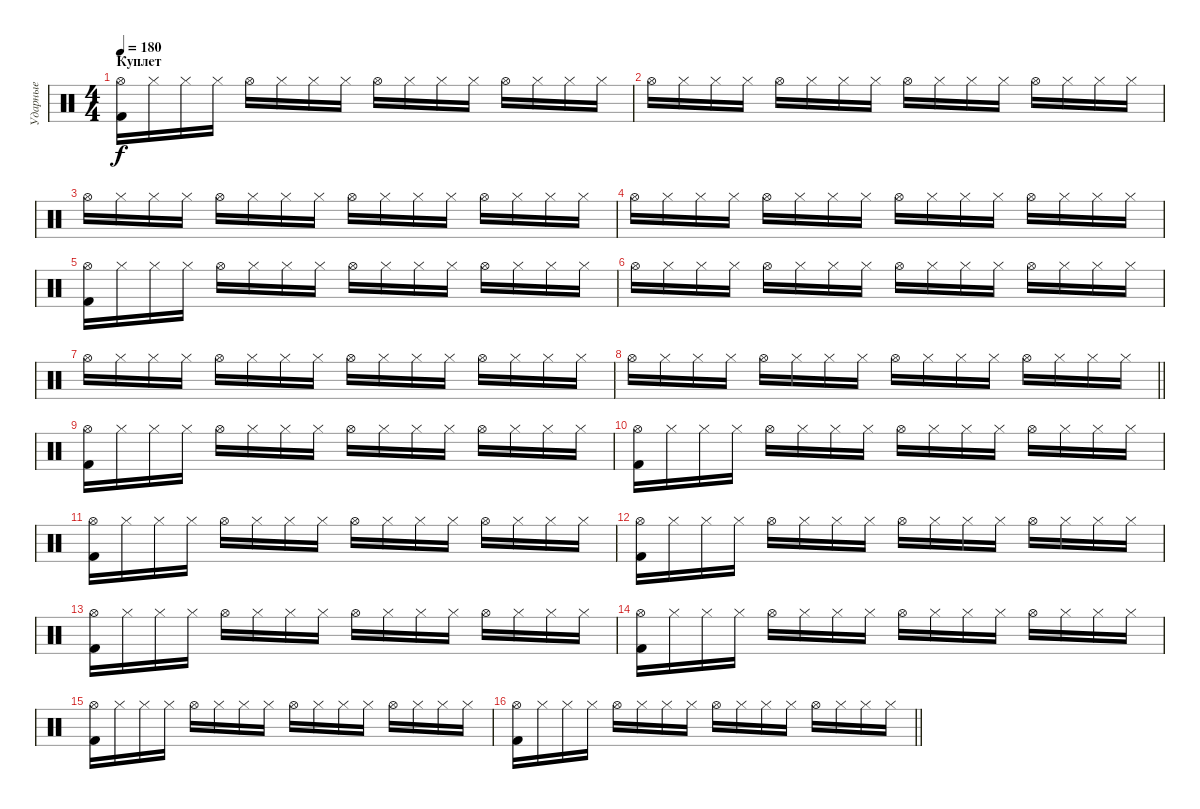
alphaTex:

\track ("Ударные" "Ударные") {instrument percussion}
\staff {score}
\articulation defaults
\ts (4 4)
\section ("" "Куплет")
\tempo 180
\clef neutral
\ks c
("Hi-Hat (open)" "Kick (hit) 2").16{dy f} "Hi-Hat (closed)".16 "Hi-Hat (closed)".16 "Hi-Hat (closed)".16 "Hi-Hat (open)".16 "Hi-Hat (closed)".16 "Hi-Hat (closed)".16 "Hi-Hat (closed)".16 "Hi-Hat (open)".16 "Hi-Hat (closed)".16 "Hi-Hat (closed)".16 "Hi-Hat (closed)".16 "Hi-Hat (open)".16 "Hi-Hat (closed)".16 "Hi-Hat (closed)".16 "Hi-Hat (closed)".16 |
"Hi-Hat (open)".16 "Hi-Hat (closed)".16 "Hi-Hat (closed)".16 "Hi-Hat (closed)".16 "Hi-Hat (open)".16 "Hi-Hat (closed)".16 "Hi-Hat (closed)".16 "Hi-Hat (closed)".16 "Hi-Hat (open)".16 "Hi-Hat (closed)".16 "Hi-Hat (closed)".16 "Hi-Hat (closed)".16 "Hi-Hat (open)".16 "Hi-Hat (closed)".16 "Hi-Hat (closed)".16 "Hi-Hat (closed)".16 |
"Hi-Hat (open)".16 "Hi-Hat (closed)".16 "Hi-Hat (closed)".16 "Hi-Hat (closed)".16 "Hi-Hat (open)".16 "Hi-Hat (closed)".16 "Hi-Hat (closed)".16 "Hi-Hat (closed)".16 "Hi-Hat (open)".16 "Hi-Hat (closed)".16 "Hi-Hat (closed)".16 "Hi-Hat (closed)".16 "Hi-Hat (open)".16 "Hi-Hat (closed)".16 "Hi-Hat (closed)".16 "Hi-Hat (closed)".16 |
"Hi-Hat (open)".16 "Hi-Hat (closed)".16 "Hi-Hat (closed)".16 "Hi-Hat (closed)".16 "Hi-Hat (open)".16 "Hi-Hat (closed)".16 "Hi-Hat (closed)".16 "Hi-Hat (closed)".16 "Hi-Hat (open)".16 "Hi-Hat (closed)".16 "Hi-Hat (closed)".16 "Hi-Hat (closed)".16 "Hi-Hat (open)".16 "Hi-Hat (closed)".16 "Hi-Hat (closed)".16 "Hi-Hat (closed)".16 |
("Hi-Hat (open)" "Kick (hit) 2").16 "Hi-Hat (closed)".16 "Hi-Hat (closed)".16 "Hi-Hat (closed)".16 "Hi-Hat (open)".16 "Hi-Hat (closed)".16 "Hi-Hat (closed)".16 "Hi-Hat (closed)".16 "Hi-Hat (open)".16 "Hi-Hat (closed)".16 "Hi-Hat (closed)".16 "Hi-Hat (closed)".16 "Hi-Hat (open)".16 "Hi-Hat (closed)".16 "Hi-Hat (closed)".16 "Hi-Hat (closed)".16 |
"Hi-Hat (open)".16 "Hi-Hat (closed)".16 "Hi-Hat (closed)".16 "Hi-Hat (closed)".16 "Hi-Hat (open)".16 "Hi-Hat (closed)".16 "Hi-Hat (closed)".16 "Hi-Hat (closed)".16 "Hi-Hat (open)".16 "Hi-Hat (closed)".16 "Hi-Hat (closed)".16 "Hi-Hat (closed)".16 "Hi-Hat (open)".16 "Hi-Hat (closed)".16 "Hi-Hat (closed)".16 "Hi-Hat (closed)".16 |
"Hi-Hat (open)".16 "Hi-Hat (closed)".16 "Hi-Hat (closed)".16 "Hi-Hat (closed)".16 "Hi-Hat (open)".16 "Hi-Hat (closed)".16 "Hi-Hat (closed)".16 "Hi-Hat (closed)".16 "Hi-Hat (open)".16 "Hi-Hat (closed)".16 "Hi-Hat (closed)".16 "Hi-Hat (closed)".16 "Hi-Hat (open)".16 "Hi-Hat (closed)".16 "Hi-Hat (closed)".16 "Hi-Hat (closed)".16 |
\barLineRight lightlight "Hi-Hat (open)".16 "Hi-Hat (closed)".16 "Hi-Hat (closed)".16 "Hi-Hat (closed)".16 "Hi-Hat (open)".16 "Hi-Hat (closed)".16 "Hi-Hat (closed)".16 "Hi-Hat (closed)".16 "Hi-Hat (open)".16 "Hi-Hat (closed)".16 "Hi-Hat (closed)".16 "Hi-Hat (closed)".16 "Hi-Hat (open)".16 "Hi-Hat (closed)".16 "Hi-Hat (closed)".16 "Hi-Hat (closed)".16
|
\section ("" "")
("Hi-Hat (open)" "Kick (hit) 2").16 "Hi-Hat (closed)".16 "Hi-Hat (closed)".16 "Hi-Hat (closed)".16 "Hi-Hat (open)".16 "Hi-Hat (closed)".16 "Hi-Hat (closed)".16 "Hi-Hat (closed)".16 "Hi-Hat (open)".16 "Hi-Hat (closed)".16 "Hi-Hat (closed)".16 "Hi-Hat (closed)".16 "Hi-Hat (open)".16 "Hi-Hat (closed)".16 "Hi-Hat (closed)".16 "Hi-Hat (closed)".16 |
("Hi-Hat (open)" "Kick (hit) 2").16 "Hi-Hat (closed)".16 "Hi-Hat (closed)".16 "Hi-Hat (closed)".16 "Hi-Hat (open)".16 "Hi-Hat (closed)".16 "Hi-Hat (closed)".16 "Hi-Hat (closed)".16 "Hi-Hat (open)".16 "Hi-Hat (closed)".16 "Hi-Hat (closed)".16 "Hi-Hat (closed)".16 "Hi-Hat (open)".16 "Hi-Hat (closed)".16 "Hi-Hat (closed)".16 "Hi-Hat (closed)".16 |
("Hi-Hat (open)" "Kick (hit) 2").16 "Hi-Hat (closed)".16 "Hi-Hat (closed)".16 "Hi-Hat (closed)".16 "Hi-Hat (open)".16 "Hi-Hat (closed)".16 "Hi-Hat (closed)".16 "Hi-Hat (closed)".16 "Hi-Hat (open)".16 "Hi-Hat (closed)".16 "Hi-Hat (closed)".16 "Hi-Hat (closed)".16 "Hi-Hat (open)".16 "Hi-Hat (closed)".16 "Hi-Hat (closed)".16 "Hi-Hat (closed)".16 |
("Hi-Hat (open)" "Kick (hit) 2").16 "Hi-Hat (closed)".16 "Hi-Hat (closed)".16 "Hi-Hat (closed)".16 "Hi-Hat (open)".16 "Hi-Hat (closed)".16 "Hi-Hat (closed)".16 "Hi-Hat (closed)".16 "Hi-Hat (open)".16 "Hi-Hat (closed)".16 "Hi-Hat (closed)".16 "Hi-Hat (closed)".16 "Hi-Hat (open)".16 "Hi-Hat (closed)".16 "Hi-Hat (closed)".16 "Hi-Hat (closed)".16 |
("Hi-Hat (open)" "Kick (hit) 2").16 "Hi-Hat (closed)".16 "Hi-Hat (closed)".16 "Hi-Hat (closed)".16 "Hi-Hat (open)".16 "Hi-Hat (closed)".16 "Hi-Hat (closed)".16 "Hi-Hat (closed)".16 "Hi-Hat (open)".16 "Hi-Hat (closed)".16 "Hi-Hat (closed)".16 "Hi-Hat (closed)".16 "Hi-Hat (open)".16 "Hi-Hat (closed)".16 "Hi-Hat (closed)".16 "Hi-Hat (closed)".16 |
("Hi-Hat (open)" "Kick (hit) 2").16 "Hi-Hat (closed)".16 "Hi-Hat (closed)".16 "Hi-Hat (closed)".16 "Hi-Hat (open)".16 "Hi-Hat (closed)".16 "Hi-Hat (closed)".16 "Hi-Hat (closed)".16 "Hi-Hat (open)".16 "Hi-Hat (closed)".16 "Hi-Hat (closed)".16 "Hi-Hat (closed)".16 "Hi-Hat (open)".16 "Hi-Hat (closed)".16 "Hi-Hat (closed)".16 "Hi-Hat (closed)".16 |
("Hi-Hat (open)" "Kick (hit) 2").16 "Hi-Hat (closed)".16 "Hi-Hat (closed)".16 "Hi-Hat (closed)".16 "Hi-Hat (open)".16 "Hi-Hat (closed)".16 "Hi-Hat (closed)".16 "Hi-Hat (closed)".16 "Hi-Hat (open)".16 "Hi-Hat (closed)".16 "Hi-Hat (closed)".16 "Hi-Hat (closed)".16 "Hi-Hat (open)".16 "Hi-Hat (closed)".16 "Hi-Hat (closed)".16 "Hi-Hat (closed)".16 |
\barLineRight lightlight
("Hi-Hat (open)" "Kick (hit) 2").16 "Hi-Hat (closed)".16 "Hi-Hat (closed)".16 "Hi-Hat (closed)".16 "Hi-Hat (open)".16 "Hi-Hat (closed)".16 "Hi-Hat (closed)".16 "Hi-Hat (closed)".16 "Hi-Hat (open)".16 "Hi-Hat (closed)".16 "Hi-Hat (closed)".16 "Hi-Hat (closed)".16 "Hi-Hat (open)".16 "Hi-Hat (closed)".16 "Hi-Hat (closed)".16 "Hi-Hat (closed)".16
